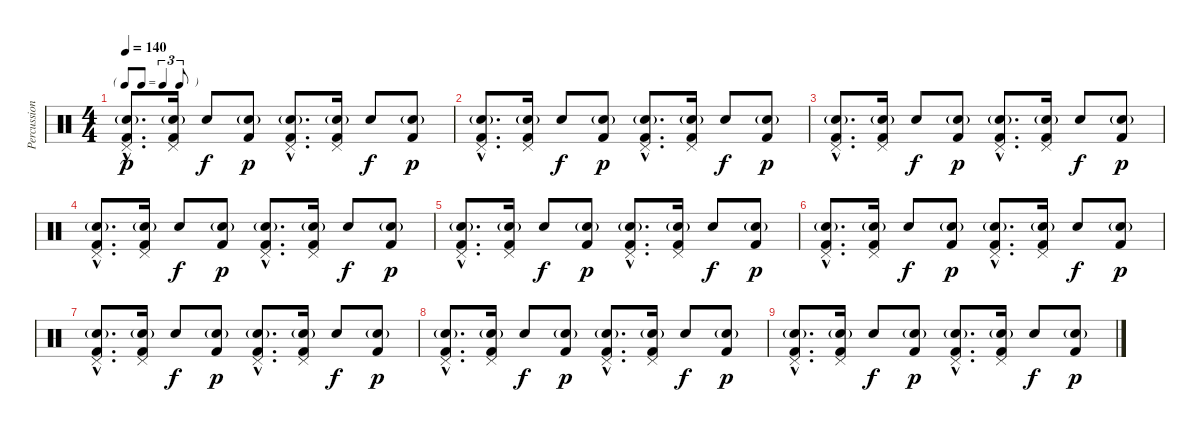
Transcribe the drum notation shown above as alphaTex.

\track ("Percussion" "Percussion") {instrument percussion}
\staff {score}
\articulation defaults
\ts (4 4)
\tf triplet8th
\tempo 140
\clef neutral
\ks c
("Pedal Hi-Hat (hit)"{hac} "Snare (hit) 2"{g hac} "Kick (hit) 2"{hac}).8{d dy p} ("Pedal Hi-Hat (hit)" "Snare (hit) 2"{g} "Kick (hit) 2").16 "Snare (hit) 2".8{dy f} ("Snare (hit) 2"{g} "Kick (hit) 2").8{dy p} ("Pedal Hi-Hat (hit)"{hac} "Snare (hit) 2"{g hac} "Kick (hit) 2"{hac}).8{d} ("Pedal Hi-Hat (hit)" "Snare (hit) 2"{g} "Kick (hit) 2").16 "Snare (hit) 2".8{dy f} ("Snare (hit) 2"{g} "Kick (hit) 2").8{dy p} |
("Pedal Hi-Hat (hit)"{hac} "Snare (hit) 2"{g hac} "Kick (hit) 2"{hac}).8{d} ("Pedal Hi-Hat (hit)" "Snare (hit) 2"{g} "Kick (hit) 2").16 "Snare (hit) 2".8{dy f} ("Snare (hit) 2"{g} "Kick (hit) 2").8{dy p} ("Pedal Hi-Hat (hit)"{hac} "Snare (hit) 2"{g hac} "Kick (hit) 2"{hac}).8{d} ("Pedal Hi-Hat (hit)" "Snare (hit) 2"{g} "Kick (hit) 2").16 "Snare (hit) 2".8{dy f} ("Snare (hit) 2"{g} "Kick (hit) 2").8{dy p} |
("Pedal Hi-Hat (hit)"{hac} "Snare (hit) 2"{g hac} "Kick (hit) 2"{hac}).8{d} ("Pedal Hi-Hat (hit)" "Snare (hit) 2"{g} "Kick (hit) 2").16 "Snare (hit) 2".8{dy f} ("Snare (hit) 2"{g} "Kick (hit) 2").8{dy p} ("Pedal Hi-Hat (hit)"{hac} "Snare (hit) 2"{g hac} "Kick (hit) 2"{hac}).8{d} ("Pedal Hi-Hat (hit)" "Snare (hit) 2"{g} "Kick (hit) 2").16 "Snare (hit) 2".8{dy f} ("Snare (hit) 2"{g} "Kick (hit) 2").8{dy p} |
("Pedal Hi-Hat (hit)"{hac} "Snare (hit) 2"{g hac} "Kick (hit) 2"{hac}).8{d} ("Pedal Hi-Hat (hit)" "Snare (hit) 2"{g} "Kick (hit) 2").16 "Snare (hit) 2".8{dy f} ("Snare (hit) 2"{g} "Kick (hit) 2").8{dy p} ("Pedal Hi-Hat (hit)"{hac} "Snare (hit) 2"{g hac} "Kick (hit) 2"{hac}).8{d} ("Pedal Hi-Hat (hit)" "Snare (hit) 2"{g} "Kick (hit) 2").16 "Snare (hit) 2".8{dy f} ("Snare (hit) 2"{g} "Kick (hit) 2").8{dy p} |
("Pedal Hi-Hat (hit)"{hac} "Snare (hit) 2"{g hac} "Kick (hit) 2"{hac}).8{d} ("Pedal Hi-Hat (hit)" "Snare (hit) 2"{g} "Kick (hit) 2").16 "Snare (hit) 2".8{dy f} ("Snare (hit) 2"{g} "Kick (hit) 2").8{dy p} ("Pedal Hi-Hat (hit)"{hac} "Snare (hit) 2"{g hac} "Kick (hit) 2"{hac}).8{d} ("Pedal Hi-Hat (hit)" "Snare (hit) 2"{g} "Kick (hit) 2").16 "Snare (hit) 2".8{dy f} ("Snare (hit) 2"{g} "Kick (hit) 2").8{dy p} |
("Pedal Hi-Hat (hit)"{hac} "Snare (hit) 2"{g hac} "Kick (hit) 2"{hac}).8{d} ("Pedal Hi-Hat (hit)" "Snare (hit) 2"{g} "Kick (hit) 2").16 "Snare (hit) 2".8{dy f} ("Snare (hit) 2"{g} "Kick (hit) 2").8{dy p} ("Pedal Hi-Hat (hit)"{hac} "Snare (hit) 2"{g hac} "Kick (hit) 2"{hac}).8{d} ("Pedal Hi-Hat (hit)" "Snare (hit) 2"{g} "Kick (hit) 2").16 "Snare (hit) 2".8{dy f} ("Snare (hit) 2"{g} "Kick (hit) 2").8{dy p} |
("Pedal Hi-Hat (hit)"{hac} "Snare (hit) 2"{g hac} "Kick (hit) 2"{hac}).8{d} ("Pedal Hi-Hat (hit)" "Snare (hit) 2"{g} "Kick (hit) 2").16 "Snare (hit) 2".8{dy f} ("Snare (hit) 2"{g} "Kick (hit) 2").8{dy p} ("Pedal Hi-Hat (hit)"{hac} "Snare (hit) 2"{g hac} "Kick (hit) 2"{hac}).8{d} ("Pedal Hi-Hat (hit)" "Snare (hit) 2"{g} "Kick (hit) 2").16 "Snare (hit) 2".8{dy f} ("Snare (hit) 2"{g} "Kick (hit) 2").8{dy p} |
("Pedal Hi-Hat (hit)"{hac} "Snare (hit) 2"{g hac} "Kick (hit) 2"{hac}).8{d} ("Pedal Hi-Hat (hit)" "Snare (hit) 2"{g} "Kick (hit) 2").16 "Snare (hit) 2".8{dy f} ("Snare (hit) 2"{g} "Kick (hit) 2").8{dy p} ("Pedal Hi-Hat (hit)"{hac} "Snare (hit) 2"{g hac} "Kick (hit) 2"{hac}).8{d} ("Pedal Hi-Hat (hit)" "Snare (hit) 2"{g} "Kick (hit) 2").16 "Snare (hit) 2".8{dy f} ("Snare (hit) 2"{g} "Kick (hit) 2").8{dy p} |
("Pedal Hi-Hat (hit)"{hac} "Snare (hit) 2"{g hac} "Kick (hit) 2"{hac}).8{d} ("Pedal Hi-Hat (hit)" "Snare (hit) 2"{g} "Kick (hit) 2").16 "Snare (hit) 2".8{dy f} ("Snare (hit) 2"{g} "Kick (hit) 2").8{dy p} ("Pedal Hi-Hat (hit)"{hac} "Snare (hit) 2"{g hac} "Kick (hit) 2"{hac}).8{d} ("Pedal Hi-Hat (hit)" "Snare (hit) 2"{g} "Kick (hit) 2").16 "Snare (hit) 2".8{dy f} ("Snare (hit) 2"{g} "Kick (hit) 2").8{dy p}
